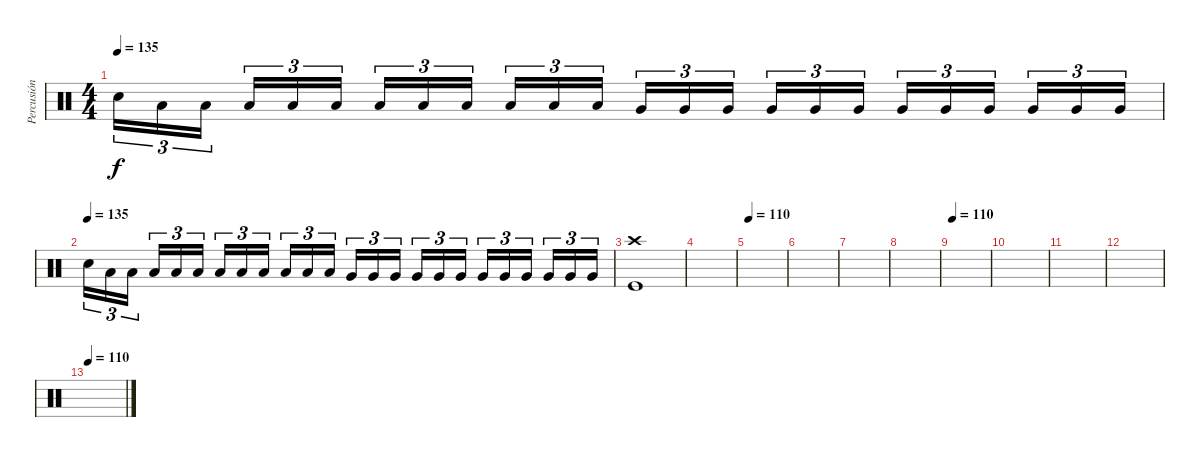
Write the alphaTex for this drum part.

\track ("Percusión" "Percusión") {instrument percussion}
\staff {score}
\articulation defaults
\ts (4 4)
\tempo 135
\clef neutral
\ks c "Snare (hit) 2".16{tu (3 2) dy f} "Low Floor Tom (hit)".16{tu (3 2)} "Low Floor Tom (hit)".16{tu (3 2) beam splitsecondary} "Low Floor Tom (hit)".16{tu (3 2)} "Low Floor Tom (hit)".16{tu (3 2)} "Low Floor Tom (hit)".16{tu (3 2)} "Low Floor Tom (hit)".16{tu (3 2)} "Low Floor Tom (hit)".16{tu (3 2)} "Low Floor Tom (hit)".16{tu (3 2) beam splitsecondary} "Low Floor Tom (hit)".16{tu (3 2)} "Low Floor Tom (hit)".16{tu (3 2)} "Low Floor Tom (hit)".16{tu (3 2)} "Very Low Tom (hit)".16{tu (3 2)} "Very Low Tom (hit)".16{tu (3 2)} "Very Low Tom (hit)".16{tu (3 2) beam splitsecondary} "Very Low Tom (hit)".16{tu (3 2)} "Very Low Tom (hit)".16{tu (3 2)} "Very Low Tom (hit)".16{tu (3 2)} "Very Low Tom (hit)".16{tu (3 2)} "Very Low Tom (hit)".16{tu (3 2)} "Very Low Tom (hit)".16{tu (3 2) beam splitsecondary} "Very Low Tom (hit)".16{tu (3 2)} "Very Low Tom (hit)".16{tu (3 2)} "Very Low Tom (hit)".16{tu (3 2)}
|
\tempo (135)
"Snare (hit) 2".16{tu (3 2)} "Low Floor Tom (hit)".16{tu (3 2)} "Low Floor Tom (hit)".16{tu (3 2) beam splitsecondary} "Low Floor Tom (hit)".16{tu (3 2)} "Low Floor Tom (hit)".16{tu (3 2)} "Low Floor Tom (hit)".16{tu (3 2)} "Low Floor Tom (hit)".16{tu (3 2)} "Low Floor Tom (hit)".16{tu (3 2)} "Low Floor Tom (hit)".16{tu (3 2) beam splitsecondary} "Low Floor Tom (hit)".16{tu (3 2)} "Low Floor Tom (hit)".16{tu (3 2)} "Low Floor Tom (hit)".16{tu (3 2)} "Very Low Tom (hit)".16{tu (3 2)} "Very Low Tom (hit)".16{tu (3 2)} "Very Low Tom (hit)".16{tu (3 2) beam splitsecondary} "Very Low Tom (hit)".16{tu (3 2)} "Very Low Tom (hit)".16{tu (3 2)} "Very Low Tom (hit)".16{tu (3 2)} "Very Low Tom (hit)".16{tu (3 2)} "Very Low Tom (hit)".16{tu (3 2)} "Very Low Tom (hit)".16{tu (3 2) beam splitsecondary} "Very Low Tom (hit)".16{tu (3 2)} "Very Low Tom (hit)".16{tu (3 2)} "Very Low Tom (hit)".16{tu (3 2)} |
("Crash high (hit)" "Kick (hit)").1 |
|
\tempo 110
|
|
|
|
\tempo 110
|
|
|
|
\tempo 110
